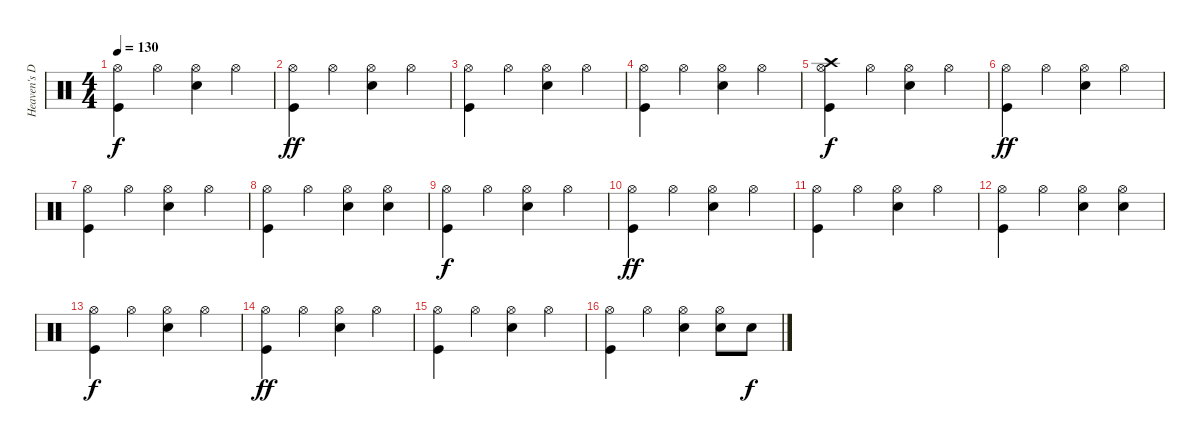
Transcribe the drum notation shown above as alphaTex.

\track ("Heaven's Door" "Heaven's D") {instrument percussion}
\staff {score}
\articulation defaults
\ts (4 4)
\tempo 130
\clef neutral
\ks c
("Hi-Hat (open)" "Kick (hit)").4{dy f} "Hi-Hat (open)".4 ("Electric Snare (hit)" "Hi-Hat (open)").4 "Hi-Hat (open)".4 |
("Hi-Hat (open)" "Kick (hit)").4{dy ff} "Hi-Hat (open)".4 ("Electric Snare (hit)" "Hi-Hat (open)").4 "Hi-Hat (open)".4 |
("Kick (hit)" "Hi-Hat (open)").4 "Hi-Hat (open)".4 ("Electric Snare (hit)" "Hi-Hat (open)").4 "Hi-Hat (open)".4 |
("Hi-Hat (open)" "Kick (hit)").4 "Hi-Hat (open)".4 ("Electric Snare (hit)" "Hi-Hat (open)").4 "Hi-Hat (open)".4 |
("Crash high (hit)" "Hi-Hat (open)" "Kick (hit)").4{dy f} "Hi-Hat (open)".4 ("Electric Snare (hit)" "Hi-Hat (open)").4 "Hi-Hat (open)".4 |
("Hi-Hat (open)" "Kick (hit)").4{dy ff} "Hi-Hat (open)".4 ("Electric Snare (hit)" "Hi-Hat (open)").4 "Hi-Hat (open)".4 |
("Kick (hit)" "Hi-Hat (open)").4 "Hi-Hat (open)".4 ("Electric Snare (hit)" "Hi-Hat (open)").4 "Hi-Hat (open)".4 |
("Hi-Hat (open)" "Kick (hit)").4 "Hi-Hat (open)".4 ("Electric Snare (hit)" "Hi-Hat (open)").4 ("Electric Snare (hit)" "Hi-Hat (open)").4 |
("Hi-Hat (open)" "Kick (hit)").4{dy f} "Hi-Hat (open)".4 ("Electric Snare (hit)" "Hi-Hat (open)").4 "Hi-Hat (open)".4 |
("Hi-Hat (open)" "Kick (hit)").4{dy ff} "Hi-Hat (open)".4 ("Electric Snare (hit)" "Hi-Hat (open)").4 "Hi-Hat (open)".4 |
("Kick (hit)" "Hi-Hat (open)").4 "Hi-Hat (open)".4 ("Electric Snare (hit)" "Hi-Hat (open)").4 "Hi-Hat (open)".4 |
("Hi-Hat (open)" "Kick (hit)").4 "Hi-Hat (open)".4 ("Electric Snare (hit)" "Hi-Hat (open)").4 ("Electric Snare (hit)" "Hi-Hat (open)").4 |
("Hi-Hat (open)" "Kick (hit)").4{dy f} "Hi-Hat (open)".4 ("Electric Snare (hit)" "Hi-Hat (open)").4 "Hi-Hat (open)".4 |
("Hi-Hat (open)" "Kick (hit)").4{dy ff} "Hi-Hat (open)".4 ("Electric Snare (hit)" "Hi-Hat (open)").4 "Hi-Hat (open)".4 |
("Kick (hit)" "Hi-Hat (open)").4 "Hi-Hat (open)".4 ("Electric Snare (hit)" "Hi-Hat (open)").4 "Hi-Hat (open)".4 |
("Hi-Hat (open)" "Kick (hit)").4 "Hi-Hat (open)".4 ("Electric Snare (hit)" "Hi-Hat (open)").4 ("Electric Snare (hit)" "Hi-Hat (open)").8 "Electric Snare (hit)".8{dy f}
